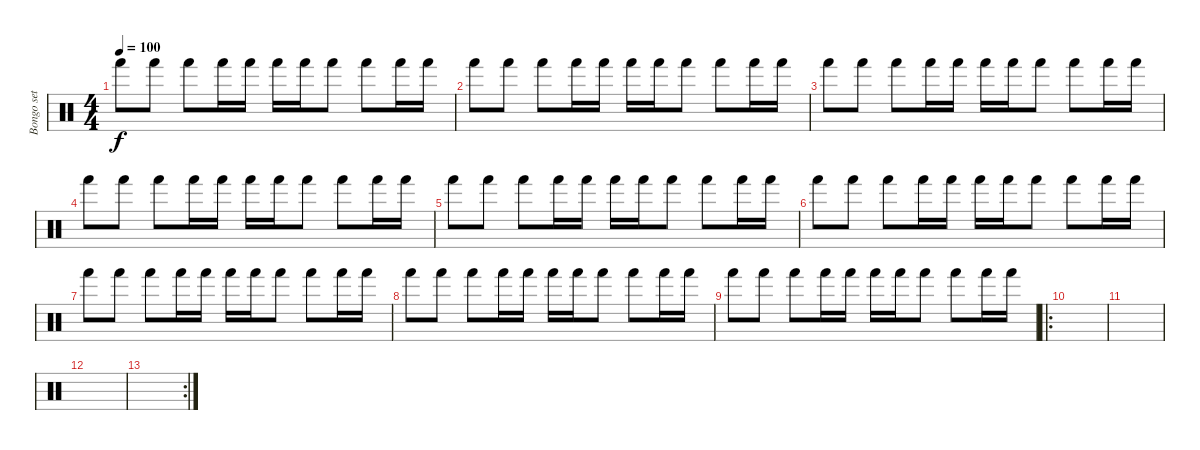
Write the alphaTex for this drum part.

\track ("Bongo set (for fill)" "Bongo set ") {instrument percussion}
\staff {score}
\articulation defaults
\ts (4 4)
\tempo 100
\clef neutral
\ks c "Hand (hit)".8{dy f} "Hand (hit)".8 "Hand (hit)".8 "Hand (hit)".16 "Hand (hit)".16 "Hand (hit)".16 "Hand (hit)".16 "Hand (hit)".8 "Hand (hit)".8 "Hand (hit)".16 "Hand (hit)".16
|
"Hand (hit)".8 "Hand (hit)".8 "Hand (hit)".8 "Hand (hit)".16 "Hand (hit)".16 "Hand (hit)".16 "Hand (hit)".16 "Hand (hit)".8 "Hand (hit)".8 "Hand (hit)".16 "Hand (hit)".16 |
"Hand (hit)".8 "Hand (hit)".8 "Hand (hit)".8 "Hand (hit)".16 "Hand (hit)".16 "Hand (hit)".16 "Hand (hit)".16 "Hand (hit)".8 "Hand (hit)".8 "Hand (hit)".16 "Hand (hit)".16 |
"Hand (hit)".8 "Hand (hit)".8 "Hand (hit)".8 "Hand (hit)".16 "Hand (hit)".16 "Hand (hit)".16 "Hand (hit)".16 "Hand (hit)".8 "Hand (hit)".8 "Hand (hit)".16 "Hand (hit)".16 |
"Hand (hit)".8 "Hand (hit)".8 "Hand (hit)".8 "Hand (hit)".16 "Hand (hit)".16 "Hand (hit)".16 "Hand (hit)".16 "Hand (hit)".8 "Hand (hit)".8 "Hand (hit)".16 "Hand (hit)".16 |
"Hand (hit)".8 "Hand (hit)".8 "Hand (hit)".8 "Hand (hit)".16 "Hand (hit)".16 "Hand (hit)".16 "Hand (hit)".16 "Hand (hit)".8 "Hand (hit)".8 "Hand (hit)".16 "Hand (hit)".16 |
"Hand (hit)".8 "Hand (hit)".8 "Hand (hit)".8 "Hand (hit)".16 "Hand (hit)".16 "Hand (hit)".16 "Hand (hit)".16 "Hand (hit)".8 "Hand (hit)".8 "Hand (hit)".16 "Hand (hit)".16 |
"Hand (hit)".8 "Hand (hit)".8 "Hand (hit)".8 "Hand (hit)".16 "Hand (hit)".16 "Hand (hit)".16 "Hand (hit)".16 "Hand (hit)".8 "Hand (hit)".8 "Hand (hit)".16 "Hand (hit)".16 |
"Hand (hit)".8 "Hand (hit)".8 "Hand (hit)".8 "Hand (hit)".16 "Hand (hit)".16 "Hand (hit)".16 "Hand (hit)".16 "Hand (hit)".8 "Hand (hit)".8 "Hand (hit)".16 "Hand (hit)".16 |
\ro
|
|
|
\rc 2
